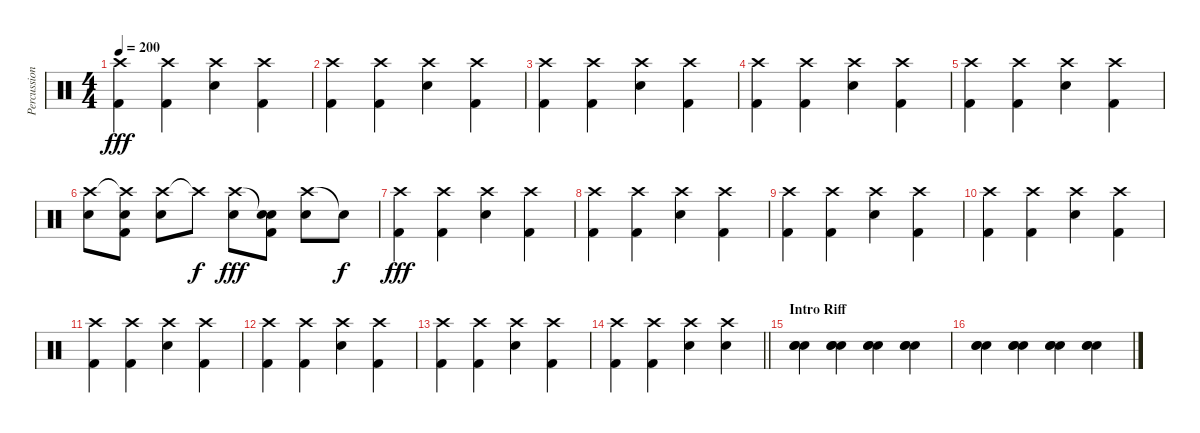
\track ("Percussions" "Percussion") {instrument percussion}
\staff {score}
\articulation defaults
\ts (4 4)
\tempo 200
\clef neutral
\ks c
("Crash high (hit)" "Kick (hit) 2").4{dy fff} ("Crash high (hit)" "Kick (hit) 2").4 ("Crash high (hit)" "Electric Snare (hit)").4 ("Crash high (hit)" "Kick (hit) 2").4 |
("Crash high (hit)" "Kick (hit) 2").4 ("Crash high (hit)" "Kick (hit) 2").4 ("Crash high (hit)" "Electric Snare (hit)").4 ("Crash high (hit)" "Kick (hit) 2").4 |
("Crash high (hit)" "Kick (hit) 2").4 ("Crash high (hit)" "Kick (hit) 2").4 ("Crash high (hit)" "Electric Snare (hit)").4 ("Crash high (hit)" "Kick (hit) 2").4 |
("Crash high (hit)" "Kick (hit) 2").4 ("Crash high (hit)" "Kick (hit) 2").4 ("Crash high (hit)" "Electric Snare (hit)").4 ("Crash high (hit)" "Kick (hit) 2").4 |
("Crash high (hit)" "Kick (hit) 2").4 ("Crash high (hit)" "Kick (hit) 2").4 ("Crash high (hit)" "Electric Snare (hit)").4 ("Crash high (hit)" "Kick (hit) 2").4 |
("Crash high (hit)" "Electric Snare (hit)").8 ("Crash high (hit)"{t} "Electric Snare (hit)" "Kick (hit) 2").8 ("Crash high (hit)" "Electric Snare (hit)").8 "Crash high (hit)"{t}.8{dy f} ("Crash high (hit)" "Electric Snare (hit)").8{dy fff} ("Snare (hit)"{t} "Electric Snare (hit)" "Kick (hit) 2").8 ("Crash high (hit)" "Electric Snare (hit)").8 "Snare (hit)"{t}.8{dy f} |
("Crash high (hit)" "Kick (hit) 2").4{dy fff} ("Crash high (hit)" "Kick (hit) 2").4 ("Crash high (hit)" "Electric Snare (hit)").4 ("Crash high (hit)" "Kick (hit) 2").4 |
("Crash high (hit)" "Kick (hit) 2").4 ("Crash high (hit)" "Kick (hit) 2").4 ("Crash high (hit)" "Electric Snare (hit)").4 ("Crash high (hit)" "Kick (hit) 2").4 |
("Crash high (hit)" "Kick (hit) 2").4 ("Crash high (hit)" "Kick (hit) 2").4 ("Crash high (hit)" "Electric Snare (hit)").4 ("Crash high (hit)" "Kick (hit) 2").4 |
("Crash high (hit)" "Kick (hit) 2").4 ("Crash high (hit)" "Kick (hit) 2").4 ("Crash high (hit)" "Electric Snare (hit)").4 ("Crash high (hit)" "Kick (hit) 2").4 |
("Crash high (hit)" "Kick (hit) 2").4 ("Crash high (hit)" "Kick (hit) 2").4 ("Crash high (hit)" "Electric Snare (hit)").4 ("Crash high (hit)" "Kick (hit) 2").4 |
("Crash high (hit)" "Kick (hit) 2").4 ("Crash high (hit)" "Kick (hit) 2").4 ("Crash high (hit)" "Electric Snare (hit)").4 ("Crash high (hit)" "Kick (hit) 2").4 |
("Crash high (hit)" "Kick (hit) 2").4 ("Crash high (hit)" "Kick (hit) 2").4 ("Crash high (hit)" "Electric Snare (hit)").4 ("Crash high (hit)" "Kick (hit) 2").4 |
\barLineRight lightlight
("Crash high (hit)" "Kick (hit) 2").4 ("Crash high (hit)" "Kick (hit) 2").4 ("Crash high (hit)" "Electric Snare (hit)").4 ("Crash high (hit)" "Electric Snare (hit)").4 |
\section ("" "Intro Riff")
("Electric Snare (hit)" "Electric Snare (hit)" "Electric Snare (hit)").4 ("Electric Snare (hit)" "Electric Snare (hit)" "Electric Snare (hit)").4 ("Electric Snare (hit)" "Electric Snare (hit)" "Electric Snare (hit)").4 ("Electric Snare (hit)" "Electric Snare (hit)" "Electric Snare (hit)").4 |
("Electric Snare (hit)" "Electric Snare (hit)" "Electric Snare (hit)").4 ("Electric Snare (hit)" "Electric Snare (hit)" "Electric Snare (hit)").4 ("Electric Snare (hit)" "Electric Snare (hit)" "Electric Snare (hit)").4 ("Electric Snare (hit)" "Electric Snare (hit)" "Electric Snare (hit)").4
